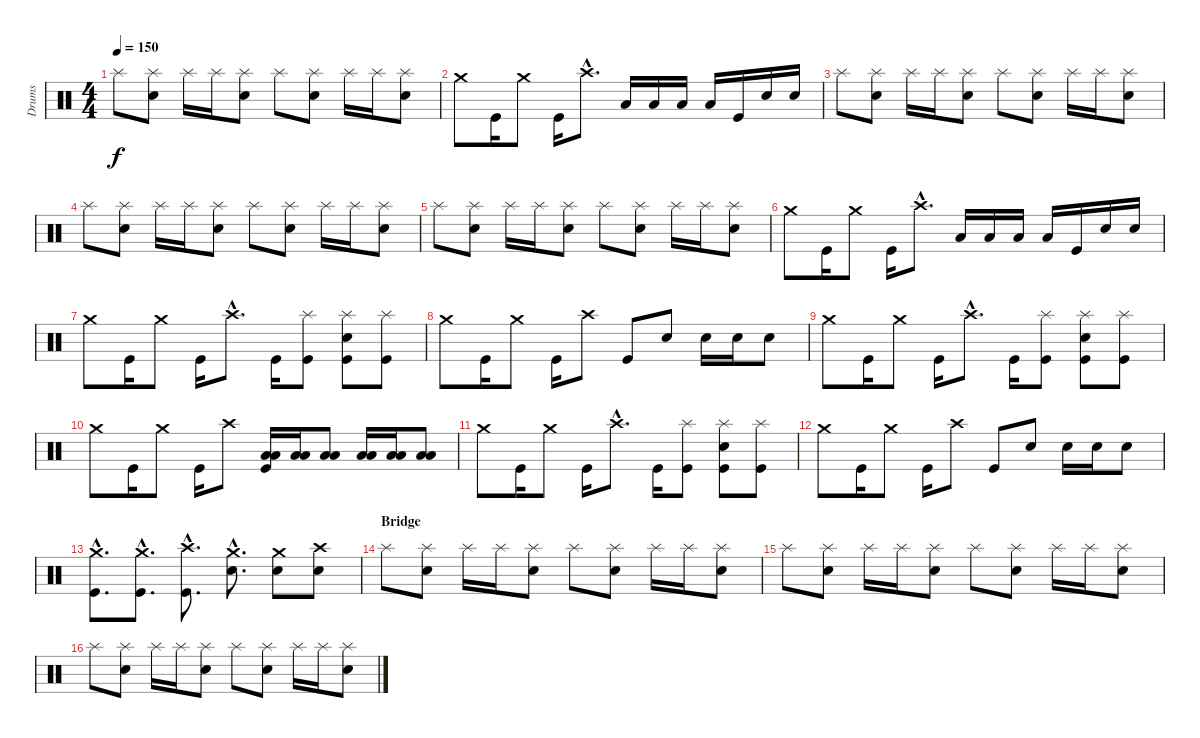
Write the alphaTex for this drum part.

\track ("Drums" "Drums") {instrument percussion}
\staff {score}
\articulation defaults
\ts (4 4)
\tempo 150
\clef neutral
\ks c "Splash (hit)".8{dy f}
("Splash (hit)" "Snare (hit) 2").8 "Splash (hit)".16 "Splash (hit)".16 ("Splash (hit)" "Snare (hit) 2").8 "Splash (hit)".8 ("Splash (hit)" "Snare (hit) 2").8 "Splash (hit)".16 "Splash (hit)".16 ("Splash (hit)" "Snare (hit) 2").8 |
"Crash medium (hit)".8 "Kick (hit)".16 "Crash medium (hit)".8 "Kick (hit)".16 "Crash high (hit)"{hac}.8{d} "Low Tom (hit)".16 "Low Tom (hit)".16 "Low Tom (hit)".16 "Low Tom (hit)".16 "Kick (hit)".16 "Snare (hit) 2".16 "Snare (hit) 2".16 |
"Splash (hit)".8 ("Splash (hit)" "Snare (hit) 2").8 "Splash (hit)".16 "Splash (hit)".16 ("Splash (hit)" "Snare (hit) 2").8 "Splash (hit)".8 ("Splash (hit)" "Snare (hit) 2").8 "Splash (hit)".16 "Splash (hit)".16 ("Splash (hit)" "Snare (hit) 2").8 |
"Splash (hit)".8 ("Splash (hit)" "Snare (hit) 2").8 "Splash (hit)".16 "Splash (hit)".16 ("Splash (hit)" "Snare (hit) 2").8 "Splash (hit)".8 ("Splash (hit)" "Snare (hit) 2").8 "Splash (hit)".16 "Splash (hit)".16 ("Splash (hit)" "Snare (hit) 2").8 |
"Splash (hit)".8 ("Splash (hit)" "Snare (hit) 2").8 "Splash (hit)".16 "Splash (hit)".16 ("Splash (hit)" "Snare (hit) 2").8 "Splash (hit)".8 ("Splash (hit)" "Snare (hit) 2").8 "Splash (hit)".16 "Splash (hit)".16 ("Splash (hit)" "Snare (hit) 2").8 |
"Crash medium (hit)".8 "Kick (hit)".16 "Crash medium (hit)".8 "Kick (hit)".16 "Crash high (hit)"{hac}.8{d} "Low Tom (hit)".16 "Low Tom (hit)".16 "Low Tom (hit)".16 "Low Tom (hit)".16 "Kick (hit)".16 "Snare (hit) 2".16 "Snare (hit) 2".16 |
"Crash medium (hit)".8 "Kick (hit)".16 "Crash medium (hit)".8 "Kick (hit)".16 "Crash high (hit)"{hac}.8{d} "Kick (hit)".16 ("Splash (hit)" "Kick (hit)").8 ("Splash (hit)" "Snare (hit) 2" "Kick (hit)").8 ("Splash (hit)" "Kick (hit)").8 |
"Crash medium (hit)".8 "Kick (hit)".16 "Crash medium (hit)".8 "Kick (hit)".16 "Crash high (hit)".8 "Kick (hit)".8 "Snare (hit) 2".8 "Snare (hit) 2".16 "Snare (hit) 2".16 "Snare (hit) 2".8 |
"Crash medium (hit)".8 "Kick (hit)".16 "Crash medium (hit)".8 "Kick (hit)".16 "Crash high (hit)"{hac}.8{d} "Kick (hit)".16 ("Splash (hit)" "Kick (hit)").8 ("Splash (hit)" "Snare (hit) 2" "Kick (hit)").8 ("Splash (hit)" "Kick (hit)").8 |
"Crash medium (hit)".8 "Kick (hit)".16 "Crash medium (hit)".8 "Kick (hit)".16 "Crash high (hit)".8 ("Low Tom (hit)" "Low Tom (hit)" "Kick (hit)").16 ("Low Tom (hit)" "Low Tom (hit)").16 ("Low Tom (hit)" "Low Tom (hit)").8 ("Low Tom (hit)" "Low Tom (hit)").16 ("Low Tom (hit)" "Low Tom (hit)").16 ("Low Tom (hit)" "Low Tom (hit)").8 |
"Crash medium (hit)".8 "Kick (hit)".16 "Crash medium (hit)".8 "Kick (hit)".16 "Crash high (hit)"{hac}.8{d} "Kick (hit)".16 ("Splash (hit)" "Kick (hit)").8 ("Splash (hit)" "Snare (hit) 2" "Kick (hit)").8 ("Splash (hit)" "Kick (hit)").8 |
"Crash medium (hit)".8 "Kick (hit)".16 "Crash medium (hit)".8 "Kick (hit)".16 "Crash high (hit)".8 "Kick (hit)".8 "Snare (hit) 2".8 "Snare (hit) 2".16 "Snare (hit) 2".16 "Snare (hit) 2".8 |
("Crash medium (hit)"{hac} "Kick (hit)"{hac}).8{d} ("Crash medium (hit)"{hac} "Kick (hit)"{hac}).8{d} ("Crash high (hit)"{hac} "Kick (hit)"{hac}).8{d} ("Crash medium (hit)"{hac} "Electric Snare (hit)"{hac}).8{d} ("Crash medium (hit)" "Electric Snare (hit)").8 ("Crash high (hit)" "Electric Snare (hit)").8 |
\section ("" "Bridge")
"Splash (hit)".8 ("Splash (hit)" "Snare (hit) 2").8 "Splash (hit)".16 "Splash (hit)".16 ("Splash (hit)" "Snare (hit) 2").8 "Splash (hit)".8 ("Splash (hit)" "Snare (hit) 2").8 "Splash (hit)".16 "Splash (hit)".16 ("Splash (hit)" "Snare (hit) 2").8 |
"Splash (hit)".8 ("Splash (hit)" "Snare (hit) 2").8 "Splash (hit)".16 "Splash (hit)".16 ("Splash (hit)" "Snare (hit) 2").8 "Splash (hit)".8 ("Splash (hit)" "Snare (hit) 2").8 "Splash (hit)".16 "Splash (hit)".16 ("Splash (hit)" "Snare (hit) 2").8 |
"Splash (hit)".8 ("Splash (hit)" "Snare (hit) 2").8 "Splash (hit)".16 "Splash (hit)".16 ("Splash (hit)" "Snare (hit) 2").8 "Splash (hit)".8 ("Splash (hit)" "Snare (hit) 2").8 "Splash (hit)".16 "Splash (hit)".16 ("Splash (hit)" "Snare (hit) 2").8
